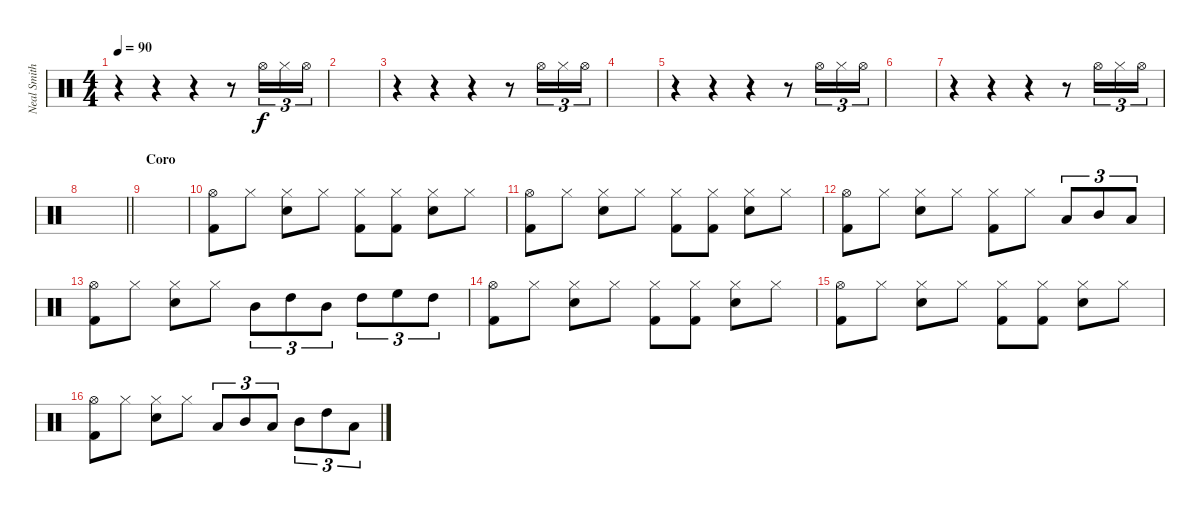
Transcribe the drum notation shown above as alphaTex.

\track ("Neal Smith" "Neal Smith") {instrument percussion}
\staff {score}
\articulation defaults
\ts (4 4)
\tempo 90
\clef neutral
\ks c
r.4{dy f} r.4 r.4 r.8 "Hi-Hat (open)".16{tu (3 2)} "Hi-Hat (closed)".16{tu (3 2)} "Hi-Hat (open)".16{tu (3 2)} |
|
r.4 r.4 r.4 r.8 "Hi-Hat (open)".16{tu (3 2)} "Hi-Hat (closed)".16{tu (3 2)} "Hi-Hat (open)".16{tu (3 2)} |
|
r.4 r.4 r.4 r.8 "Hi-Hat (open)".16{tu (3 2)} "Hi-Hat (closed)".16{tu (3 2)} "Hi-Hat (open)".16{tu (3 2)} |
|
r.4 r.4 r.4 r.8 "Hi-Hat (open)".16{tu (3 2)} "Hi-Hat (closed)".16{tu (3 2)} "Hi-Hat (open)".16{tu (3 2)} |
\barLineRight lightlight
|
\section ("" "Coro")
|
("Hi-Hat (open)" "Kick (hit) 2").8 "Hi-Hat (closed)".8 ("Hi-Hat (closed)" "Snare (hit) 2").8 "Hi-Hat (closed)".8 ("Hi-Hat (closed)" "Kick (hit) 2").8 ("Hi-Hat (closed)" "Kick (hit) 2").8 ("Hi-Hat (closed)" "Snare (hit) 2").8 "Hi-Hat (closed)".8 |
("Hi-Hat (open)" "Kick (hit) 2").8 "Hi-Hat (closed)".8 ("Hi-Hat (closed)" "Snare (hit) 2").8 "Hi-Hat (closed)".8 ("Hi-Hat (closed)" "Kick (hit) 2").8 ("Hi-Hat (closed)" "Kick (hit) 2").8 ("Hi-Hat (closed)" "Snare (hit) 2").8 "Hi-Hat (closed)".8 |
("Hi-Hat (open)" "Kick (hit) 2").8 "Hi-Hat (closed)".8 ("Hi-Hat (closed)" "Snare (hit) 2").8 "Hi-Hat (closed)".8 ("Hi-Hat (closed)" "Kick (hit) 2").8 "Hi-Hat (closed)".8 "Low Tom (hit)".8{tu (3 2)} "Mid Tom (hit)".8{tu (3 2)} "Low Tom (hit)".8{tu (3 2)} |
("Hi-Hat (open)" "Kick (hit) 2").8 "Hi-Hat (closed)".8 ("Hi-Hat (closed)" "Snare (hit) 2").8 "Hi-Hat (closed)".8 "Mid Tom (hit)".8{tu (3 2)} "High Tom (hit)".8{tu (3 2)} "Mid Tom (hit)".8{tu (3 2)} "High Tom (hit)".8{tu (3 2)} "High Floor Tom (hit)".8{tu (3 2)} "High Tom (hit)".8{tu (3 2)} |
("Hi-Hat (open)" "Kick (hit) 2").8 "Hi-Hat (closed)".8 ("Hi-Hat (closed)" "Snare (hit) 2").8 "Hi-Hat (closed)".8 ("Hi-Hat (closed)" "Kick (hit) 2").8 ("Hi-Hat (closed)" "Kick (hit) 2").8 ("Hi-Hat (closed)" "Snare (hit) 2").8 "Hi-Hat (closed)".8 |
("Hi-Hat (open)" "Kick (hit) 2").8 "Hi-Hat (closed)".8 ("Hi-Hat (closed)" "Snare (hit) 2").8 "Hi-Hat (closed)".8 ("Hi-Hat (closed)" "Kick (hit) 2").8 ("Hi-Hat (closed)" "Kick (hit) 2").8 ("Hi-Hat (closed)" "Snare (hit) 2").8 "Hi-Hat (closed)".8 |
("Hi-Hat (open)" "Kick (hit) 2").8 "Hi-Hat (closed)".8 ("Hi-Hat (closed)" "Snare (hit) 2").8 "Hi-Hat (closed)".8 "Low Tom (hit)".8{tu (3 2)} "Mid Tom (hit)".8{tu (3 2)} "Low Tom (hit)".8{tu (3 2)} "Mid Tom (hit)".8{tu (3 2)} "High Tom (hit)".8{tu (3 2)} "Low Tom (hit)".8{tu (3 2)}
